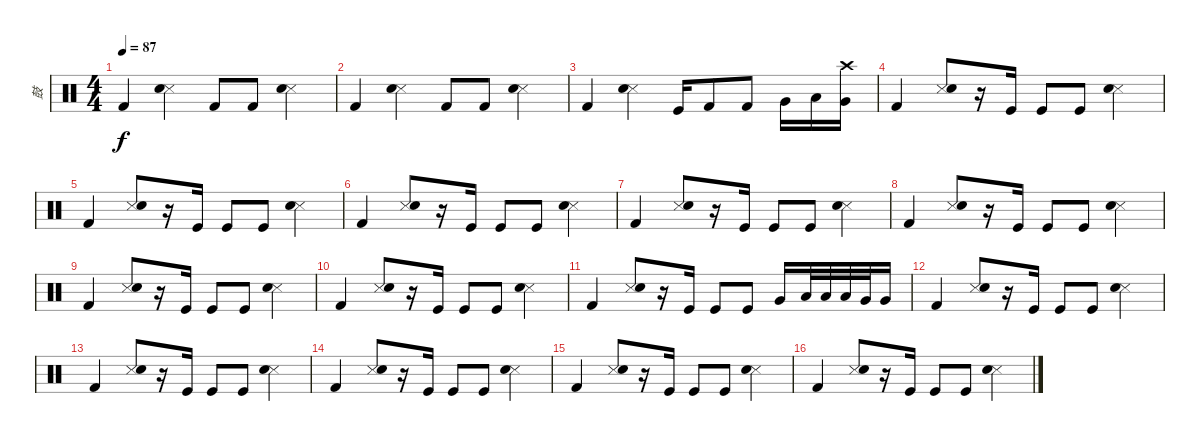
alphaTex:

\track ("鼓" "鼓") {instrument percussion}
\staff {score}
\articulation defaults
\ts (4 4)
\tempo 87
\clef neutral
\ks c "Kick (hit) 2".4{dy f}
("Snare (side stick) 3" "Electric Snare (hit)").4 "Kick (hit) 2".8 "Kick (hit) 2".8 ("Snare (side stick) 3" "Electric Snare (hit)").4 |
"Kick (hit) 2".4 ("Snare (side stick) 3" "Electric Snare (hit)").4 "Kick (hit) 2".8 "Kick (hit) 2".8 ("Snare (side stick) 3" "Electric Snare (hit)").4 |
"Kick (hit) 2".4 ("Snare (side stick) 3" "Electric Snare (hit)").4 "Kick (hit)".16 "Kick (hit) 2".8 "Kick (hit) 2".8 "Very Low Tom (hit)".16 "Low Tom (hit)".16 ("Crash high (hit)" "Very Low Tom (hit)").16 |
"Kick (hit) 2".4 ("Snare (side stick) 3" "Electric Snare (hit)").8 r.16 "Kick (hit)".16 "Kick (hit)".8 "Kick (hit)".8 ("Snare (side stick) 3" "Electric Snare (hit)").4 |
"Kick (hit) 2".4 ("Snare (side stick) 3" "Electric Snare (hit)").8 r.16 "Kick (hit)".16 "Kick (hit)".8 "Kick (hit)".8 ("Snare (side stick) 3" "Electric Snare (hit)").4 |
"Kick (hit) 2".4 ("Snare (side stick) 3" "Electric Snare (hit)").8 r.16 "Kick (hit)".16 "Kick (hit)".8 "Kick (hit)".8 ("Snare (side stick) 3" "Electric Snare (hit)").4 |
"Kick (hit) 2".4 ("Snare (side stick) 3" "Electric Snare (hit)").8 r.16 "Kick (hit)".16 "Kick (hit)".8 "Kick (hit)".8 ("Snare (side stick) 3" "Electric Snare (hit)").4 |
"Kick (hit) 2".4 ("Snare (side stick) 3" "Electric Snare (hit)").8 r.16 "Kick (hit)".16 "Kick (hit)".8 "Kick (hit)".8 ("Snare (side stick) 3" "Electric Snare (hit)").4 |
"Kick (hit) 2".4 ("Snare (side stick) 3" "Electric Snare (hit)").8 r.16 "Kick (hit)".16 "Kick (hit)".8 "Kick (hit)".8 ("Snare (side stick) 3" "Electric Snare (hit)").4 |
"Kick (hit) 2".4 ("Snare (side stick) 3" "Electric Snare (hit)").8 r.16 "Kick (hit)".16 "Kick (hit)".8 "Kick (hit)".8 ("Snare (side stick) 3" "Electric Snare (hit)").4 |
"Kick (hit) 2".4 ("Snare (side stick) 3" "Electric Snare (hit)").8 r.16 "Kick (hit)".16 "Kick (hit)".8 "Kick (hit)".8 "Very Low Tom (hit)".16 "Low Floor Tom (hit)".32 "Low Tom (hit)".32 "Low Tom (hit)".32 "Very Low Tom (hit)".32 "Very Low Tom (hit)".16 |
"Kick (hit) 2".4 ("Snare (side stick) 3" "Electric Snare (hit)").8 r.16 "Kick (hit)".16 "Kick (hit)".8 "Kick (hit)".8 ("Snare (side stick) 3" "Electric Snare (hit)").4 |
"Kick (hit) 2".4 ("Snare (side stick) 3" "Electric Snare (hit)").8 r.16 "Kick (hit)".16 "Kick (hit)".8 "Kick (hit)".8 ("Snare (side stick) 3" "Electric Snare (hit)").4 |
"Kick (hit) 2".4 ("Snare (side stick) 3" "Electric Snare (hit)").8 r.16 "Kick (hit)".16 "Kick (hit)".8 "Kick (hit)".8 ("Snare (side stick) 3" "Electric Snare (hit)").4 |
"Kick (hit) 2".4 ("Snare (side stick) 3" "Electric Snare (hit)").8 r.16 "Kick (hit)".16 "Kick (hit)".8 "Kick (hit)".8 ("Snare (side stick) 3" "Electric Snare (hit)").4 |
"Kick (hit) 2".4 ("Snare (side stick) 3" "Electric Snare (hit)").8 r.16 "Kick (hit)".16 "Kick (hit)".8 "Kick (hit)".8 ("Snare (side stick) 3" "Electric Snare (hit)").4
